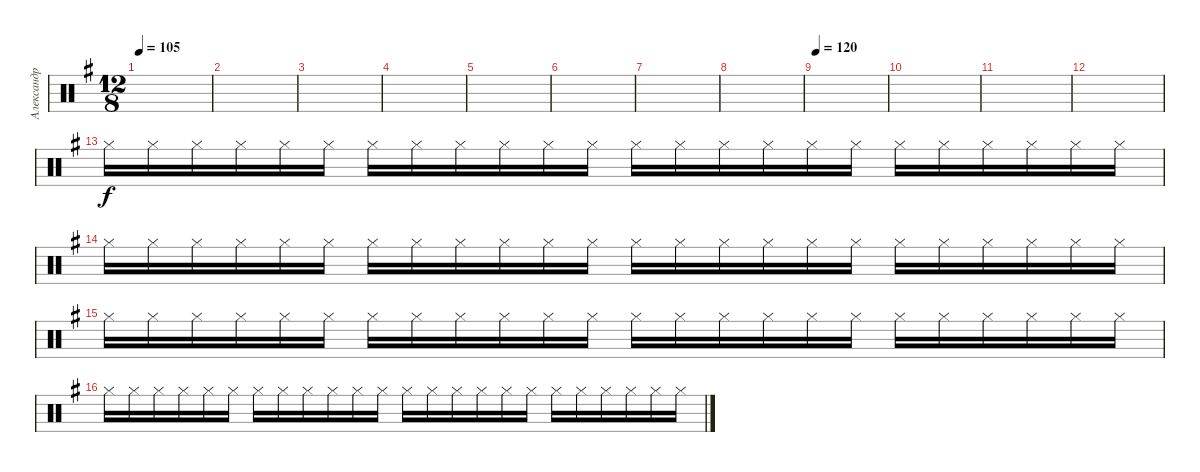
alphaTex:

\track ("Александр Манякин" "Александр ") {instrument percussion}
\staff {score}
\articulation defaults
\ts (12 8)
\tempo 105
\clef neutral
\ks g
|
|
|
|
|
|
|
|
\tempo 120
|
|
|
|
"Hi-Hat (closed)".16 "Hi-Hat (closed)".16 "Hi-Hat (closed)".16 "Hi-Hat (closed)".16 "Hi-Hat (closed)".16 "Hi-Hat (closed)".16 "Hi-Hat (closed)".16 "Hi-Hat (closed)".16 "Hi-Hat (closed)".16 "Hi-Hat (closed)".16 "Hi-Hat (closed)".16 "Hi-Hat (closed)".16 "Hi-Hat (closed)".16 "Hi-Hat (closed)".16 "Hi-Hat (closed)".16 "Hi-Hat (closed)".16 "Hi-Hat (closed)".16 "Hi-Hat (closed)".16 "Hi-Hat (closed)".16 "Hi-Hat (closed)".16 "Hi-Hat (closed)".16 "Hi-Hat (closed)".16 "Hi-Hat (closed)".16 "Hi-Hat (closed)".16 |
"Hi-Hat (closed)".16 "Hi-Hat (closed)".16 "Hi-Hat (closed)".16 "Hi-Hat (closed)".16 "Hi-Hat (closed)".16 "Hi-Hat (closed)".16 "Hi-Hat (closed)".16 "Hi-Hat (closed)".16 "Hi-Hat (closed)".16 "Hi-Hat (closed)".16 "Hi-Hat (closed)".16 "Hi-Hat (closed)".16 "Hi-Hat (closed)".16 "Hi-Hat (closed)".16 "Hi-Hat (closed)".16 "Hi-Hat (closed)".16 "Hi-Hat (closed)".16 "Hi-Hat (closed)".16 "Hi-Hat (closed)".16 "Hi-Hat (closed)".16 "Hi-Hat (closed)".16 "Hi-Hat (closed)".16 "Hi-Hat (closed)".16 "Hi-Hat (closed)".16 |
"Hi-Hat (closed)".16 "Hi-Hat (closed)".16 "Hi-Hat (closed)".16 "Hi-Hat (closed)".16 "Hi-Hat (closed)".16 "Hi-Hat (closed)".16 "Hi-Hat (closed)".16 "Hi-Hat (closed)".16 "Hi-Hat (closed)".16 "Hi-Hat (closed)".16 "Hi-Hat (closed)".16 "Hi-Hat (closed)".16 "Hi-Hat (closed)".16 "Hi-Hat (closed)".16 "Hi-Hat (closed)".16 "Hi-Hat (closed)".16 "Hi-Hat (closed)".16 "Hi-Hat (closed)".16 "Hi-Hat (closed)".16 "Hi-Hat (closed)".16 "Hi-Hat (closed)".16 "Hi-Hat (closed)".16 "Hi-Hat (closed)".16 "Hi-Hat (closed)".16 |
"Hi-Hat (closed)".16 "Hi-Hat (closed)".16 "Hi-Hat (closed)".16 "Hi-Hat (closed)".16 "Hi-Hat (closed)".16 "Hi-Hat (closed)".16 "Hi-Hat (closed)".16 "Hi-Hat (closed)".16 "Hi-Hat (closed)".16 "Hi-Hat (closed)".16 "Hi-Hat (closed)".16 "Hi-Hat (closed)".16 "Hi-Hat (closed)".16 "Hi-Hat (closed)".16 "Hi-Hat (closed)".16 "Hi-Hat (closed)".16 "Hi-Hat (closed)".16 "Hi-Hat (closed)".16 "Hi-Hat (closed)".16 "Hi-Hat (closed)".16 "Hi-Hat (closed)".16 "Hi-Hat (closed)".16 "Hi-Hat (closed)".16 "Hi-Hat (closed)".16
